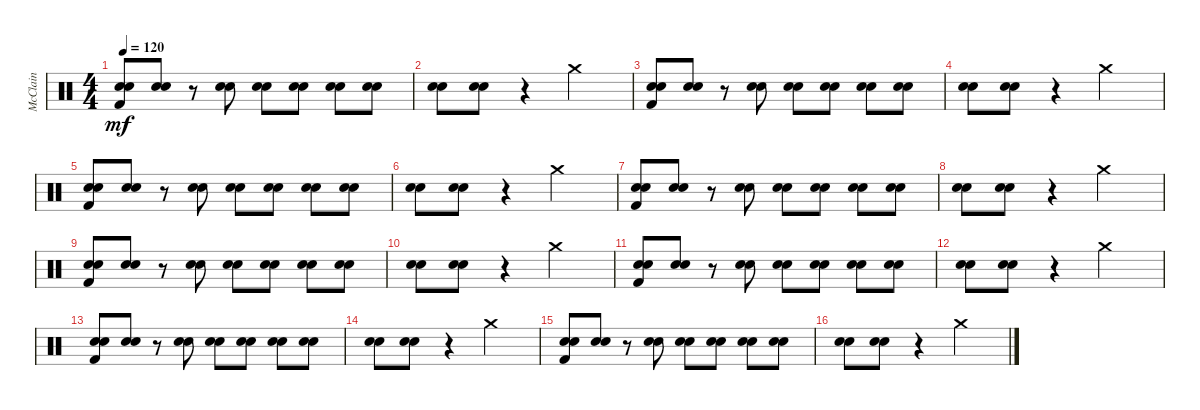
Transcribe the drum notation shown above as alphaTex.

\track ("McClain" "McClain") {instrument percussion}
\staff {score}
\articulation defaults
\ts (4 4)
\tempo 120
\clef neutral
\ks c
("Snare (hit) 2" "Electric Snare (hit)" "Kick (hit) 2").8{dy mf} ("Snare (hit) 2" "Electric Snare (hit)").8 r.8 ("Snare (hit) 2" "Electric Snare (hit)").8 ("Snare (hit) 2" "Electric Snare (hit)").8 ("Snare (hit) 2" "Electric Snare (hit)").8 ("Snare (hit) 2" "Electric Snare (hit)").8 ("Snare (hit) 2" "Electric Snare (hit)").8 |
("Snare (hit) 2" "Electric Snare (hit)").8 ("Snare (hit) 2" "Electric Snare (hit)").8 r.4 "Crash medium (hit)".2 |
("Snare (hit) 2" "Electric Snare (hit)" "Kick (hit) 2").8 ("Snare (hit) 2" "Electric Snare (hit)").8 r.8 ("Snare (hit) 2" "Electric Snare (hit)").8 ("Snare (hit) 2" "Electric Snare (hit)").8 ("Snare (hit) 2" "Electric Snare (hit)").8 ("Snare (hit) 2" "Electric Snare (hit)").8 ("Snare (hit) 2" "Electric Snare (hit)").8 |
("Snare (hit) 2" "Electric Snare (hit)").8 ("Snare (hit) 2" "Electric Snare (hit)").8 r.4 "Crash medium (hit)".2 |
("Snare (hit) 2" "Electric Snare (hit)" "Kick (hit) 2").8 ("Snare (hit) 2" "Electric Snare (hit)").8 r.8 ("Snare (hit) 2" "Electric Snare (hit)").8 ("Snare (hit) 2" "Electric Snare (hit)").8 ("Snare (hit) 2" "Electric Snare (hit)").8 ("Snare (hit) 2" "Electric Snare (hit)").8 ("Snare (hit) 2" "Electric Snare (hit)").8 |
("Snare (hit) 2" "Electric Snare (hit)").8 ("Snare (hit) 2" "Electric Snare (hit)").8 r.4 "Crash medium (hit)".2 |
("Snare (hit) 2" "Electric Snare (hit)" "Kick (hit) 2").8 ("Snare (hit) 2" "Electric Snare (hit)").8 r.8 ("Snare (hit) 2" "Electric Snare (hit)").8 ("Snare (hit) 2" "Electric Snare (hit)").8 ("Snare (hit) 2" "Electric Snare (hit)").8 ("Snare (hit) 2" "Electric Snare (hit)").8 ("Snare (hit) 2" "Electric Snare (hit)").8 |
("Snare (hit) 2" "Electric Snare (hit)").8 ("Snare (hit) 2" "Electric Snare (hit)").8 r.4 "Crash medium (hit)".2 |
("Snare (hit) 2" "Electric Snare (hit)" "Kick (hit) 2").8 ("Snare (hit) 2" "Electric Snare (hit)").8 r.8 ("Snare (hit) 2" "Electric Snare (hit)").8 ("Snare (hit) 2" "Electric Snare (hit)").8 ("Snare (hit) 2" "Electric Snare (hit)").8 ("Snare (hit) 2" "Electric Snare (hit)").8 ("Snare (hit) 2" "Electric Snare (hit)").8 |
("Snare (hit) 2" "Electric Snare (hit)").8 ("Snare (hit) 2" "Electric Snare (hit)").8 r.4 "Crash medium (hit)".2 |
("Snare (hit) 2" "Electric Snare (hit)" "Kick (hit) 2").8 ("Snare (hit) 2" "Electric Snare (hit)").8 r.8 ("Snare (hit) 2" "Electric Snare (hit)").8 ("Snare (hit) 2" "Electric Snare (hit)").8 ("Snare (hit) 2" "Electric Snare (hit)").8 ("Snare (hit) 2" "Electric Snare (hit)").8 ("Snare (hit) 2" "Electric Snare (hit)").8 |
("Snare (hit) 2" "Electric Snare (hit)").8 ("Snare (hit) 2" "Electric Snare (hit)").8 r.4 "Crash medium (hit)".2 |
("Snare (hit) 2" "Electric Snare (hit)" "Kick (hit) 2").8 ("Snare (hit) 2" "Electric Snare (hit)").8 r.8 ("Snare (hit) 2" "Electric Snare (hit)").8 ("Snare (hit) 2" "Electric Snare (hit)").8 ("Snare (hit) 2" "Electric Snare (hit)").8 ("Snare (hit) 2" "Electric Snare (hit)").8 ("Snare (hit) 2" "Electric Snare (hit)").8 |
("Snare (hit) 2" "Electric Snare (hit)").8 ("Snare (hit) 2" "Electric Snare (hit)").8 r.4 "Crash medium (hit)".2 |
("Snare (hit) 2" "Electric Snare (hit)" "Kick (hit) 2").8 ("Snare (hit) 2" "Electric Snare (hit)").8 r.8 ("Snare (hit) 2" "Electric Snare (hit)").8 ("Snare (hit) 2" "Electric Snare (hit)").8 ("Snare (hit) 2" "Electric Snare (hit)").8 ("Snare (hit) 2" "Electric Snare (hit)").8 ("Snare (hit) 2" "Electric Snare (hit)").8 |
("Snare (hit) 2" "Electric Snare (hit)").8 ("Snare (hit) 2" "Electric Snare (hit)").8 r.4 "Crash medium (hit)".2
